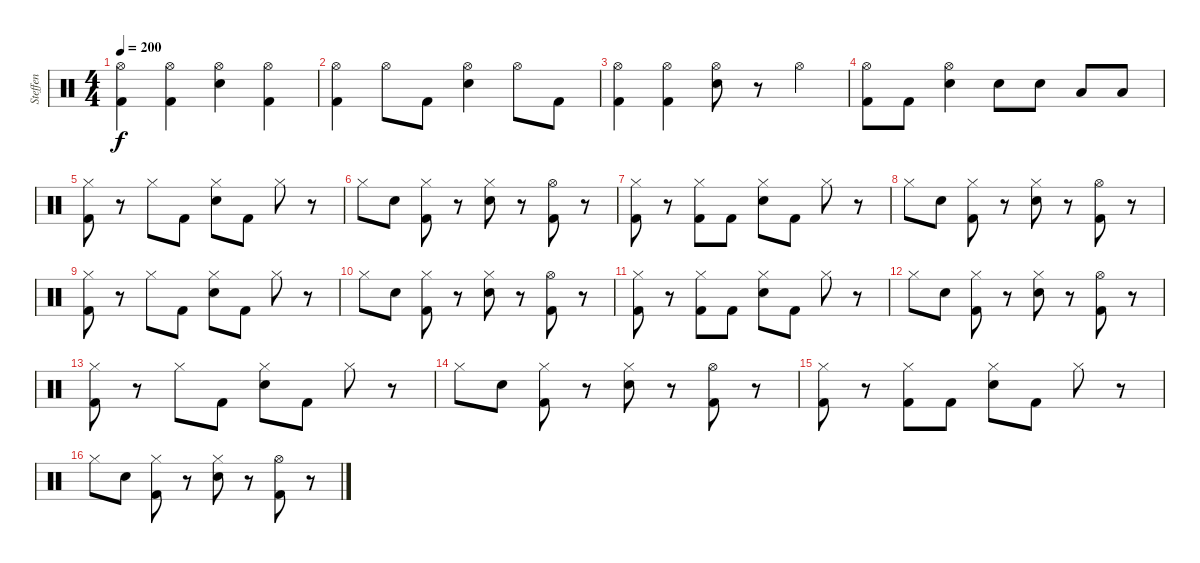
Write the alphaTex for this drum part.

\track ("Steffen" "Steffen") {instrument percussion}
\staff {score}
\articulation defaults
\ts (4 4)
\tempo 200
\clef neutral
\ks c
("Hi-Hat (open)" "Kick (hit) 2").4{dy f} ("Hi-Hat (open)" "Kick (hit) 2").4 ("Hi-Hat (open)" "Electric Snare (hit)").4 ("Hi-Hat (open)" "Kick (hit) 2").4 |
("Hi-Hat (open)" "Kick (hit) 2").4 "Hi-Hat (open)".8 "Kick (hit) 2".8 ("Hi-Hat (open)" "Electric Snare (hit)").4 "Hi-Hat (open)".8 "Kick (hit) 2".8 |
("Hi-Hat (open)" "Kick (hit) 2").4 ("Hi-Hat (open)" "Kick (hit) 2").4 ("Hi-Hat (open)" "Electric Snare (hit)").8 r.8 "Hi-Hat (open)".4 |
("Hi-Hat (open)" "Kick (hit) 2").8 "Kick (hit) 2".8 ("Hi-Hat (open)" "Electric Snare (hit)").4 "Electric Snare (hit)".8 "Electric Snare (hit)".8 "Low Tom (hit)".8 "Low Tom (hit)".8 |
("Hi-Hat (closed)" "Kick (hit) 2").8 r.8 "Hi-Hat (closed)".8 "Kick (hit) 2".8 ("Hi-Hat (closed)" "Electric Snare (hit)").8 "Kick (hit) 2".8 "Hi-Hat (closed)".8 r.8 |
"Hi-Hat (closed)".8 "Electric Snare (hit)".8 ("Hi-Hat (closed)" "Kick (hit) 2").8 r.8 ("Hi-Hat (closed)" "Electric Snare (hit)").8 r.8 ("Hi-Hat (open)" "Kick (hit) 2").8 r.8 |
("Hi-Hat (closed)" "Kick (hit) 2").8 r.8 ("Hi-Hat (closed)" "Kick (hit) 2").8 "Kick (hit) 2".8 ("Hi-Hat (closed)" "Electric Snare (hit)").8 "Kick (hit) 2".8 "Hi-Hat (closed)".8 r.8 |
"Hi-Hat (closed)".8 "Electric Snare (hit)".8 ("Hi-Hat (closed)" "Kick (hit) 2").8 r.8 ("Hi-Hat (closed)" "Electric Snare (hit)").8 r.8 ("Hi-Hat (open)" "Kick (hit) 2").8 r.8 |
("Hi-Hat (closed)" "Kick (hit) 2").8 r.8 "Hi-Hat (closed)".8 "Kick (hit) 2".8 ("Hi-Hat (closed)" "Electric Snare (hit)").8 "Kick (hit) 2".8 "Hi-Hat (closed)".8 r.8 |
"Hi-Hat (closed)".8 "Electric Snare (hit)".8 ("Hi-Hat (closed)" "Kick (hit) 2").8 r.8 ("Hi-Hat (closed)" "Electric Snare (hit)").8 r.8 ("Hi-Hat (open)" "Kick (hit) 2").8 r.8 |
("Hi-Hat (closed)" "Kick (hit) 2").8 r.8 ("Hi-Hat (closed)" "Kick (hit) 2").8 "Kick (hit) 2".8 ("Hi-Hat (closed)" "Electric Snare (hit)").8 "Kick (hit) 2".8 "Hi-Hat (closed)".8 r.8 |
"Hi-Hat (closed)".8 "Electric Snare (hit)".8 ("Hi-Hat (closed)" "Kick (hit) 2").8 r.8 ("Hi-Hat (closed)" "Electric Snare (hit)").8 r.8 ("Hi-Hat (open)" "Kick (hit) 2").8 r.8 |
("Hi-Hat (closed)" "Kick (hit) 2").8 r.8 "Hi-Hat (closed)".8 "Kick (hit) 2".8 ("Hi-Hat (closed)" "Electric Snare (hit)").8 "Kick (hit) 2".8 "Hi-Hat (closed)".8 r.8 |
"Hi-Hat (closed)".8 "Electric Snare (hit)".8 ("Hi-Hat (closed)" "Kick (hit) 2").8 r.8 ("Hi-Hat (closed)" "Electric Snare (hit)").8 r.8 ("Hi-Hat (open)" "Kick (hit) 2").8 r.8 |
("Hi-Hat (closed)" "Kick (hit) 2").8 r.8 ("Hi-Hat (closed)" "Kick (hit) 2").8 "Kick (hit) 2".8 ("Hi-Hat (closed)" "Electric Snare (hit)").8 "Kick (hit) 2".8 "Hi-Hat (closed)".8 r.8 |
"Hi-Hat (closed)".8 "Electric Snare (hit)".8 ("Hi-Hat (closed)" "Kick (hit) 2").8 r.8 ("Hi-Hat (closed)" "Electric Snare (hit)").8 r.8 ("Hi-Hat (open)" "Kick (hit) 2").8 r.8
